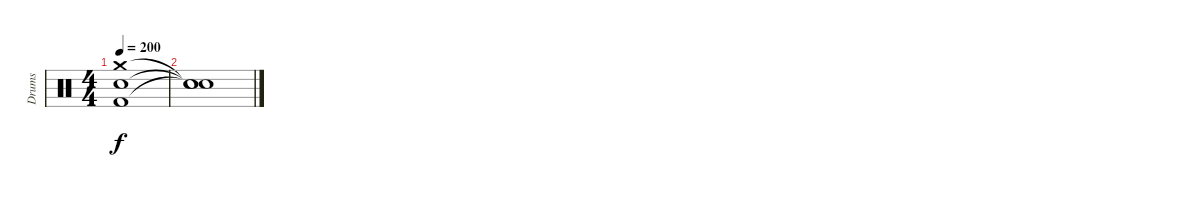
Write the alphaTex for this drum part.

\track ("Drums" "Drums") {instrument percussion}
\staff {score}
\articulation defaults
\ts (4 4)
\tempo 200
\clef neutral
\ks c
("Crash medium (hit)" "Electric Snare (hit)" "Kick (hit) 2").1{dy f} |
("Snare (hit)"{t} "Snare (hit)"{t} "Snare (hit)"{t}).1
